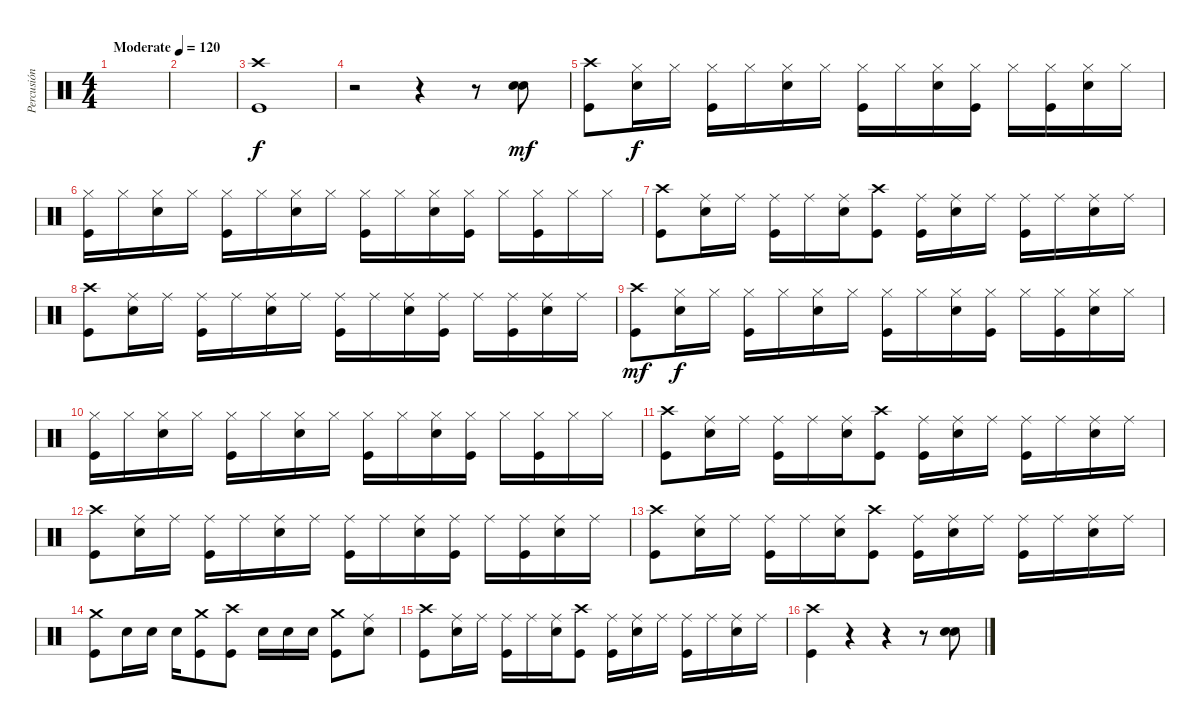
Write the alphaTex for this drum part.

\track ("Percusión" "Percusión") {instrument percussion}
\staff {score}
\articulation defaults
\ts (4 4)
\tempo (120 "Moderate")
\clef neutral
\ks c
|
|
("Kick (hit)" "Crash high (hit)").1 |
r.2 r.4 r.8 ("Snare (hit) 2" "Snare (hit) 2").8{dy mf} |
("Kick (hit)" "Crash high (hit)").8 ("Snare (hit) 2" "Hi-Hat (closed)").16{dy f} "Hi-Hat (closed)".16 ("Kick (hit)" "Hi-Hat (closed)").16 "Hi-Hat (closed)".16 ("Snare (hit) 2" "Hi-Hat (closed)").16 "Hi-Hat (closed)".16 ("Kick (hit)" "Hi-Hat (closed)").16 "Hi-Hat (closed)".16 ("Snare (hit) 2" "Hi-Hat (closed)").16 ("Kick (hit)" "Hi-Hat (closed)").16 "Hi-Hat (closed)".16 ("Kick (hit)" "Hi-Hat (closed)").16 ("Snare (hit) 2" "Hi-Hat (closed)").16 "Hi-Hat (closed)".16 |
("Kick (hit)" "Hi-Hat (closed)").16 "Hi-Hat (closed)".16 ("Snare (hit) 2" "Hi-Hat (closed)").16 "Hi-Hat (closed)".16 ("Kick (hit)" "Hi-Hat (closed)").16 "Hi-Hat (closed)".16 ("Snare (hit) 2" "Hi-Hat (closed)").16 "Hi-Hat (closed)".16 ("Kick (hit)" "Hi-Hat (closed)").16 "Hi-Hat (closed)".16 ("Snare (hit) 2" "Hi-Hat (closed)").16 ("Kick (hit)" "Hi-Hat (closed)").16 "Hi-Hat (closed)".16 ("Kick (hit)" "Hi-Hat (closed)").16 "Hi-Hat (closed)".16 "Hi-Hat (closed)".16 |
("Kick (hit)" "Crash high (hit)").8 ("Snare (hit) 2" "Ride (middle)").16 "Ride (middle)".16 ("Kick (hit)" "Ride (middle)").16 "Ride (middle)".16 ("Snare (hit) 2" "Ride (middle)").16 ("Kick (hit)" "Crash high (hit)").8 ("Kick (hit)" "Ride (middle)").16 ("Snare (hit) 2" "Ride (middle)").16 "Ride (middle)".16 ("Kick (hit)" "Ride (middle)").16 "Ride (middle)".16 ("Snare (hit) 2" "Ride (middle)").16 "Ride (middle)".16 |
("Kick (hit)" "Crash high (hit)").8 ("Snare (hit) 2" "Ride (middle)").16 "Ride (middle)".16 ("Kick (hit)" "Ride (middle)").16 "Ride (middle)".16 ("Snare (hit) 2" "Ride (middle)").16 "Ride (middle)".16 ("Kick (hit)" "Ride (middle)").16 "Ride (middle)".16 ("Snare (hit) 2" "Ride (middle)").16 ("Kick (hit)" "Ride (middle)").16 "Ride (middle)".16 ("Kick (hit)" "Ride (middle)").16 ("Snare (hit) 2" "Ride (middle)").16 "Ride (middle)".16 |
("Kick (hit)" "Crash high (hit)").8{dy mf} ("Snare (hit) 2" "Hi-Hat (closed)").16{dy f} "Hi-Hat (closed)".16 ("Kick (hit)" "Hi-Hat (closed)").16 "Hi-Hat (closed)".16 ("Snare (hit) 2" "Hi-Hat (closed)").16 "Hi-Hat (closed)".16 ("Kick (hit)" "Hi-Hat (closed)").16 "Hi-Hat (closed)".16 ("Snare (hit) 2" "Hi-Hat (closed)").16 ("Kick (hit)" "Hi-Hat (closed)").16 "Hi-Hat (closed)".16 ("Kick (hit)" "Hi-Hat (closed)").16 ("Snare (hit) 2" "Hi-Hat (closed)").16 "Hi-Hat (closed)".16 |
("Kick (hit)" "Hi-Hat (closed)").16 "Hi-Hat (closed)".16 ("Snare (hit) 2" "Hi-Hat (closed)").16 "Hi-Hat (closed)".16 ("Kick (hit)" "Hi-Hat (closed)").16 "Hi-Hat (closed)".16 ("Snare (hit) 2" "Hi-Hat (closed)").16 "Hi-Hat (closed)".16 ("Kick (hit)" "Hi-Hat (closed)").16 "Hi-Hat (closed)".16 ("Snare (hit) 2" "Hi-Hat (closed)").16 ("Kick (hit)" "Hi-Hat (closed)").16 "Hi-Hat (closed)".16 ("Kick (hit)" "Hi-Hat (closed)").16 "Hi-Hat (closed)".16 "Hi-Hat (closed)".16 |
("Kick (hit)" "Crash high (hit)").8 ("Snare (hit) 2" "Ride (middle)").16 "Ride (middle)".16 ("Kick (hit)" "Ride (middle)").16 "Ride (middle)".16 ("Snare (hit) 2" "Ride (middle)").16 ("Kick (hit)" "Crash high (hit)").8 ("Kick (hit)" "Ride (middle)").16 ("Snare (hit) 2" "Ride (middle)").16 "Ride (middle)".16 ("Kick (hit)" "Ride (middle)").16 "Ride (middle)".16 ("Snare (hit) 2" "Ride (middle)").16 "Ride (middle)".16 |
("Kick (hit)" "Crash high (hit)").8 ("Snare (hit) 2" "Ride (middle)").16 "Ride (middle)".16 ("Kick (hit)" "Ride (middle)").16 "Ride (middle)".16 ("Snare (hit) 2" "Ride (middle)").16 "Ride (middle)".16 ("Kick (hit)" "Ride (middle)").16 "Ride (middle)".16 ("Snare (hit) 2" "Ride (middle)").16 ("Kick (hit)" "Ride (middle)").16 "Ride (middle)".16 ("Kick (hit)" "Ride (middle)").16 ("Snare (hit) 2" "Ride (middle)").16 "Ride (middle)".16 |
("Kick (hit)" "Crash high (hit)").8 ("Snare (hit) 2" "Ride (middle)").16 "Ride (middle)".16 ("Kick (hit)" "Ride (middle)").16 "Ride (middle)".16 ("Snare (hit) 2" "Ride (middle)").16 ("Kick (hit)" "Crash high (hit)").8 ("Kick (hit)" "Ride (middle)").16 ("Snare (hit) 2" "Ride (middle)").16 "Ride (middle)".16 ("Kick (hit)" "Ride (middle)").16 "Ride (middle)".16 ("Snare (hit) 2" "Ride (middle)").16 "Ride (middle)".16 |
("Kick (hit)" "Crash medium (hit)").8 "Snare (hit) 2".16 "Snare (hit) 2".16 "Snare (hit) 2".16 ("Kick (hit)" "Crash medium (hit)").8 ("Kick (hit)" "Crash high (hit)").8 "Snare (hit) 2".16 "Snare (hit) 2".16 "Snare (hit) 2".16 ("Kick (hit)" "Crash medium (hit)").8 ("Snare (hit) 2" "Ride (middle)").8 |
("Kick (hit)" "Crash high (hit)").8 ("Snare (hit) 2" "Ride (middle)").16 "Ride (middle)".16 ("Kick (hit)" "Ride (middle)").16 "Ride (middle)".16 ("Snare (hit) 2" "Ride (middle)").16 ("Kick (hit)" "Crash high (hit)").8 ("Kick (hit)" "Ride (middle)").16 ("Snare (hit) 2" "Ride (middle)").16 "Ride (middle)".16 ("Kick (hit)" "Ride (middle)").16 "Ride (middle)".16 ("Snare (hit) 2" "Ride (middle)").16 "Ride (middle)".16 |
("Kick (hit)" "Crash high (hit)").4 r.4 r.4 r.8 ("Snare (hit) 2" "Snare (hit) 2").8
